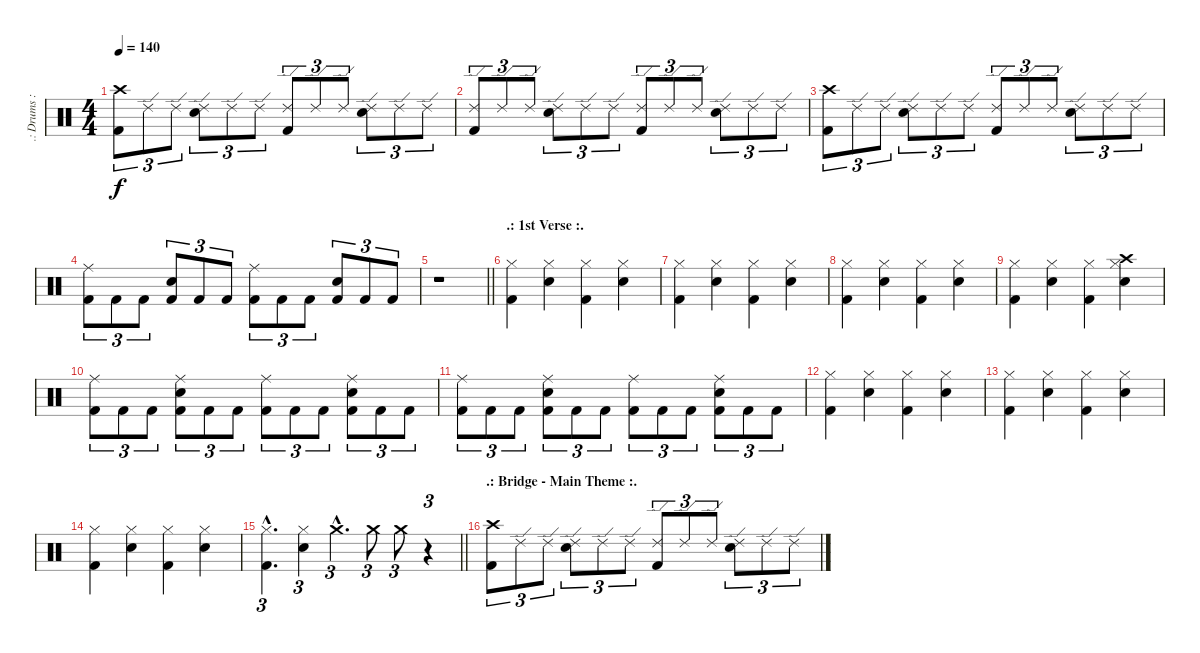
\track (".: Drums :." ".: Drums :") {instrument percussion}
\staff {score}
\articulation defaults
\ts (4 4)
\tempo 140
\clef neutral
\ks c
("Crash high (hit)" "Kick (hit) 2").8{tu (3 2) dy f} "Ride (edge) 2".8{tu (3 2)} "Ride (edge) 2".8{tu (3 2)} ("Ride (edge) 2" "Snare (hit) 2").8{tu (3 2)} "Ride (edge) 2".8{tu (3 2)} "Ride (edge) 2".8{tu (3 2)} ("Ride (edge) 2" "Kick (hit) 2").8{tu (3 2)} "Ride (edge) 2".8{tu (3 2)} "Ride (edge) 2".8{tu (3 2)} ("Ride (edge) 2" "Snare (hit) 2").8{tu (3 2)} "Ride (edge) 2".8{tu (3 2)} "Ride (edge) 2".8{tu (3 2)} |
("Ride (edge) 2" "Kick (hit) 2").8{tu (3 2)} "Ride (edge) 2".8{tu (3 2)} "Ride (edge) 2".8{tu (3 2)} ("Ride (edge) 2" "Snare (hit) 2").8{tu (3 2)} "Ride (edge) 2".8{tu (3 2)} "Ride (edge) 2".8{tu (3 2)} ("Ride (edge) 2" "Kick (hit) 2").8{tu (3 2)} "Ride (edge) 2".8{tu (3 2)} "Ride (edge) 2".8{tu (3 2)} ("Ride (edge) 2" "Snare (hit) 2").8{tu (3 2)} "Ride (edge) 2".8{tu (3 2)} "Ride (edge) 2".8{tu (3 2)} |
("Crash high (hit)" "Kick (hit) 2").8{tu (3 2)} "Ride (edge) 2".8{tu (3 2)} "Ride (edge) 2".8{tu (3 2)} ("Ride (edge) 2" "Snare (hit) 2").8{tu (3 2)} "Ride (edge) 2".8{tu (3 2)} "Ride (edge) 2".8{tu (3 2)} ("Ride (edge) 2" "Kick (hit) 2").8{tu (3 2)} "Ride (edge) 2".8{tu (3 2)} "Ride (edge) 2".8{tu (3 2)} ("Ride (edge) 2" "Snare (hit) 2").8{tu (3 2)} "Ride (edge) 2".8{tu (3 2)} "Ride (edge) 2".8{tu (3 2)} |
("Kick (hit) 2" "Ride (middle)").8{tu (3 2)} "Kick (hit) 2".8{tu (3 2)} "Kick (hit) 2".8{tu (3 2)} ("Kick (hit) 2" "Snare (hit) 2").8{tu (3 2)} "Kick (hit) 2".8{tu (3 2)} "Kick (hit) 2".8{tu (3 2)} ("Kick (hit) 2" "Ride (middle)").8{tu (3 2)} "Kick (hit) 2".8{tu (3 2)} "Kick (hit) 2".8{tu (3 2)} ("Kick (hit) 2" "Snare (hit) 2").8{tu (3 2)} "Kick (hit) 2".8{tu (3 2)} "Kick (hit) 2".8{tu (3 2)} |
\barLineRight lightlight
r.1 |
\section ("" ".: 1st Verse :.")
("Hi-Hat (closed)" "Kick (hit) 2").4 ("Hi-Hat (closed)" "Snare (hit) 2").4 ("Hi-Hat (closed)" "Kick (hit) 2").4 ("Hi-Hat (closed)" "Snare (hit) 2").4 |
("Hi-Hat (closed)" "Kick (hit) 2").4 ("Hi-Hat (closed)" "Snare (hit) 2").4 ("Hi-Hat (closed)" "Kick (hit) 2").4 ("Hi-Hat (closed)" "Snare (hit) 2").4 |
("Hi-Hat (closed)" "Kick (hit) 2").4 ("Hi-Hat (closed)" "Snare (hit) 2").4 ("Hi-Hat (closed)" "Kick (hit) 2").4 ("Hi-Hat (closed)" "Snare (hit) 2").4 |
("Hi-Hat (closed)" "Kick (hit) 2").4 ("Hi-Hat (closed)" "Snare (hit) 2").4 ("Hi-Hat (closed)" "Kick (hit) 2").4 ("Hi-Hat (closed)" "Snare (hit) 2" "Crash high (hit)").4 |
("Kick (hit) 2" "Ride (middle)").8{tu (3 2)} "Kick (hit) 2".8{tu (3 2)} "Kick (hit) 2".8{tu (3 2)} ("Kick (hit) 2" "Ride (middle)" "Snare (hit) 2").8{tu (3 2)} "Kick (hit) 2".8{tu (3 2)} "Kick (hit) 2".8{tu (3 2)} ("Kick (hit) 2" "Ride (middle)").8{tu (3 2)} "Kick (hit) 2".8{tu (3 2)} "Kick (hit) 2".8{tu (3 2)} ("Kick (hit) 2" "Ride (middle)" "Snare (hit) 2").8{tu (3 2)} "Kick (hit) 2".8{tu (3 2)} "Kick (hit) 2".8{tu (3 2)} |
("Kick (hit) 2" "Ride (middle)").8{tu (3 2)} "Kick (hit) 2".8{tu (3 2)} "Kick (hit) 2".8{tu (3 2)} ("Kick (hit) 2" "Ride (middle)" "Snare (hit) 2").8{tu (3 2)} "Kick (hit) 2".8{tu (3 2)} "Kick (hit) 2".8{tu (3 2)} ("Kick (hit) 2" "Ride (middle)").8{tu (3 2)} "Kick (hit) 2".8{tu (3 2)} "Kick (hit) 2".8{tu (3 2)} ("Kick (hit) 2" "Ride (middle)" "Snare (hit) 2").8{tu (3 2)} "Kick (hit) 2".8{tu (3 2)} "Kick (hit) 2".8{tu (3 2)} |
("Hi-Hat (closed)" "Kick (hit) 2").4 ("Hi-Hat (closed)" "Snare (hit) 2").4 ("Hi-Hat (closed)" "Kick (hit) 2").4 ("Hi-Hat (closed)" "Snare (hit) 2").4 |
("Hi-Hat (closed)" "Kick (hit) 2").4 ("Hi-Hat (closed)" "Snare (hit) 2").4 ("Hi-Hat (closed)" "Kick (hit) 2").4 ("Hi-Hat (closed)" "Snare (hit) 2").4 |
("Hi-Hat (closed)" "Kick (hit) 2").4 ("Hi-Hat (closed)" "Snare (hit) 2").4 ("Hi-Hat (closed)" "Kick (hit) 2").4 ("Hi-Hat (closed)" "Snare (hit) 2").4 |
\barLineRight lightlight
("Hi-Hat (closed)"{hac} "Kick (hit) 2"{hac}).4{d tu (3 2)} ("Hi-Hat (closed)" "Snare (hit) 2").4{tu (3 2)} "Crash medium (hit)"{hac}.4{d tu (3 2)} "Crash medium (hit)".8{tu (3 2)} "Crash medium (hit)".8{tu (3 2)} r.4{tu (3 2)} |
\section ("" ".: Bridge - Main Theme :.")
("Crash high (hit)" "Kick (hit) 2").8{tu (3 2)} "Ride (edge) 2".8{tu (3 2)} "Ride (edge) 2".8{tu (3 2)} ("Ride (edge) 2" "Snare (hit) 2").8{tu (3 2)} "Ride (edge) 2".8{tu (3 2)} "Ride (edge) 2".8{tu (3 2)} ("Ride (edge) 2" "Kick (hit) 2").8{tu (3 2)} "Ride (edge) 2".8{tu (3 2)} "Ride (edge) 2".8{tu (3 2)} ("Ride (edge) 2" "Snare (hit) 2").8{tu (3 2)} "Ride (edge) 2".8{tu (3 2)} "Ride (edge) 2".8{tu (3 2)}
